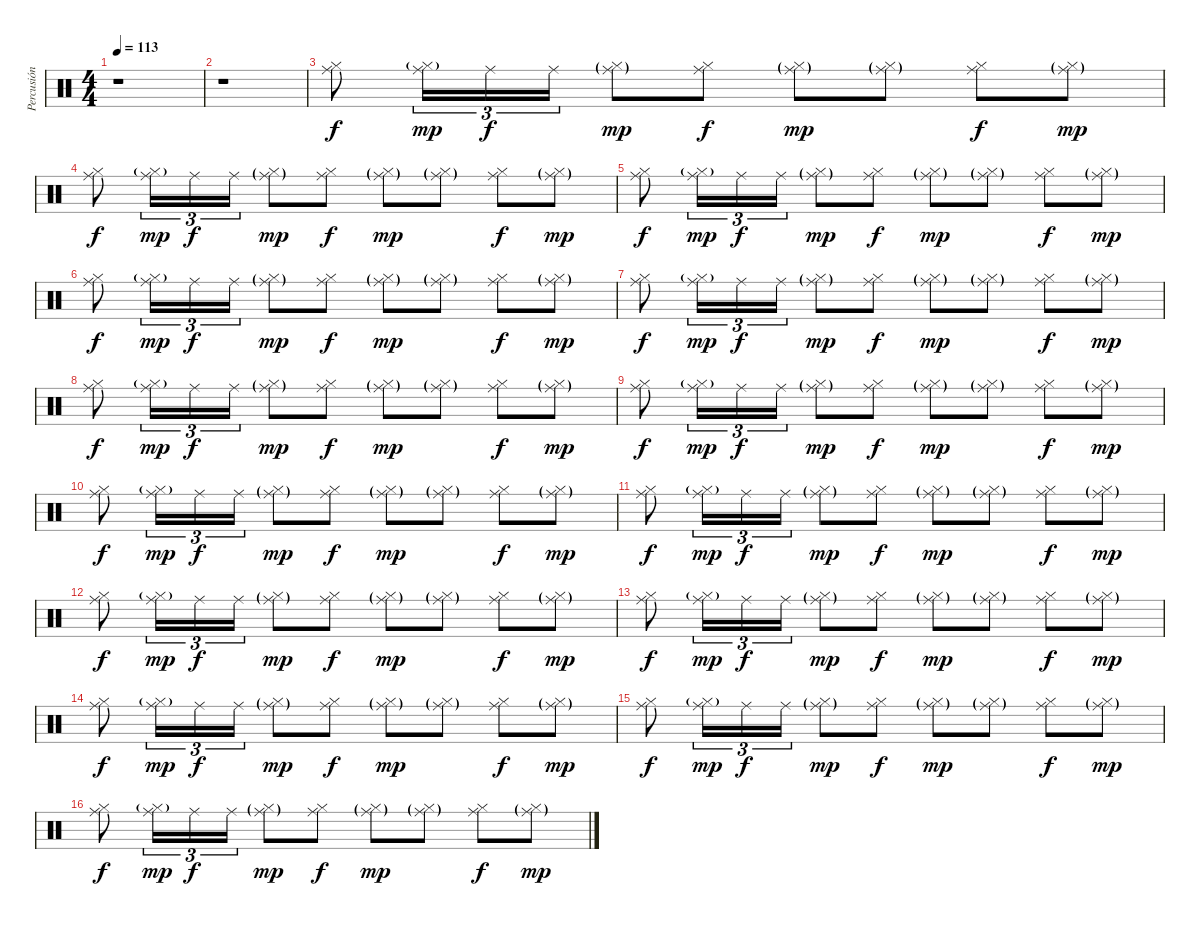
\track ("Percusión" "Percusión") {instrument percussion}
\staff {score}
\articulation defaults
\ts (4 4)
\tempo 113
\clef neutral
\ks c
r.1{dy f} |
r.1 |
("Hi-Hat (closed)" "Ride (middle)").8 ("Hi-Hat (closed)"{g} "Ride (middle)").16{tu (3 2) dy mp} "Ride (middle)".16{tu (3 2) dy f} "Ride (middle)".16{tu (3 2)} ("Hi-Hat (closed)"{g} "Ride (middle)"{g}).8{dy mp} ("Hi-Hat (closed)" "Ride (middle)").8{dy f} ("Hi-Hat (closed)"{g} "Ride (middle)"{g}).8{dy mp} ("Hi-Hat (closed)"{g} "Ride (middle)"{g}).8 ("Hi-Hat (closed)" "Ride (middle)").8{dy f} ("Hi-Hat (closed)"{g} "Ride (middle)"{g}).8{dy mp} |
("Hi-Hat (closed)" "Ride (middle)").8{dy f} ("Hi-Hat (closed)"{g} "Ride (middle)").16{tu (3 2) dy mp} "Ride (middle)".16{tu (3 2) dy f} "Ride (middle)".16{tu (3 2)} ("Hi-Hat (closed)"{g} "Ride (middle)"{g}).8{dy mp} ("Hi-Hat (closed)" "Ride (middle)").8{dy f} ("Hi-Hat (closed)"{g} "Ride (middle)"{g}).8{dy mp} ("Hi-Hat (closed)"{g} "Ride (middle)"{g}).8 ("Hi-Hat (closed)" "Ride (middle)").8{dy f} ("Hi-Hat (closed)"{g} "Ride (middle)"{g}).8{dy mp} |
("Hi-Hat (closed)" "Ride (middle)").8{dy f} ("Hi-Hat (closed)"{g} "Ride (middle)").16{tu (3 2) dy mp} "Ride (middle)".16{tu (3 2) dy f} "Ride (middle)".16{tu (3 2)} ("Hi-Hat (closed)"{g} "Ride (middle)"{g}).8{dy mp} ("Hi-Hat (closed)" "Ride (middle)").8{dy f} ("Hi-Hat (closed)"{g} "Ride (middle)"{g}).8{dy mp} ("Hi-Hat (closed)"{g} "Ride (middle)"{g}).8 ("Hi-Hat (closed)" "Ride (middle)").8{dy f} ("Hi-Hat (closed)"{g} "Ride (middle)"{g}).8{dy mp} |
("Hi-Hat (closed)" "Ride (middle)").8{dy f} ("Hi-Hat (closed)"{g} "Ride (middle)").16{tu (3 2) dy mp} "Ride (middle)".16{tu (3 2) dy f} "Ride (middle)".16{tu (3 2)} ("Hi-Hat (closed)"{g} "Ride (middle)"{g}).8{dy mp} ("Hi-Hat (closed)" "Ride (middle)").8{dy f} ("Hi-Hat (closed)"{g} "Ride (middle)"{g}).8{dy mp} ("Hi-Hat (closed)"{g} "Ride (middle)"{g}).8 ("Hi-Hat (closed)" "Ride (middle)").8{dy f} ("Hi-Hat (closed)"{g} "Ride (middle)"{g}).8{dy mp} |
("Hi-Hat (closed)" "Ride (middle)").8{dy f} ("Hi-Hat (closed)"{g} "Ride (middle)").16{tu (3 2) dy mp} "Ride (middle)".16{tu (3 2) dy f} "Ride (middle)".16{tu (3 2)} ("Hi-Hat (closed)"{g} "Ride (middle)"{g}).8{dy mp} ("Hi-Hat (closed)" "Ride (middle)").8{dy f} ("Hi-Hat (closed)"{g} "Ride (middle)"{g}).8{dy mp} ("Hi-Hat (closed)"{g} "Ride (middle)"{g}).8 ("Hi-Hat (closed)" "Ride (middle)").8{dy f} ("Hi-Hat (closed)"{g} "Ride (middle)"{g}).8{dy mp} |
("Hi-Hat (closed)" "Ride (middle)").8{dy f} ("Hi-Hat (closed)"{g} "Ride (middle)").16{tu (3 2) dy mp} "Ride (middle)".16{tu (3 2) dy f} "Ride (middle)".16{tu (3 2)} ("Hi-Hat (closed)"{g} "Ride (middle)"{g}).8{dy mp} ("Hi-Hat (closed)" "Ride (middle)").8{dy f} ("Hi-Hat (closed)"{g} "Ride (middle)"{g}).8{dy mp} ("Hi-Hat (closed)"{g} "Ride (middle)"{g}).8 ("Hi-Hat (closed)" "Ride (middle)").8{dy f} ("Hi-Hat (closed)"{g} "Ride (middle)"{g}).8{dy mp} |
("Hi-Hat (closed)" "Ride (middle)").8{dy f} ("Hi-Hat (closed)"{g} "Ride (middle)").16{tu (3 2) dy mp} "Ride (middle)".16{tu (3 2) dy f} "Ride (middle)".16{tu (3 2)} ("Hi-Hat (closed)"{g} "Ride (middle)"{g}).8{dy mp} ("Hi-Hat (closed)" "Ride (middle)").8{dy f} ("Hi-Hat (closed)"{g} "Ride (middle)"{g}).8{dy mp} ("Hi-Hat (closed)"{g} "Ride (middle)"{g}).8 ("Hi-Hat (closed)" "Ride (middle)").8{dy f} ("Hi-Hat (closed)"{g} "Ride (middle)"{g}).8{dy mp} |
("Hi-Hat (closed)" "Ride (middle)").8{dy f} ("Hi-Hat (closed)"{g} "Ride (middle)").16{tu (3 2) dy mp} "Ride (middle)".16{tu (3 2) dy f} "Ride (middle)".16{tu (3 2)} ("Hi-Hat (closed)"{g} "Ride (middle)"{g}).8{dy mp} ("Hi-Hat (closed)" "Ride (middle)").8{dy f} ("Hi-Hat (closed)"{g} "Ride (middle)"{g}).8{dy mp} ("Hi-Hat (closed)"{g} "Ride (middle)"{g}).8 ("Hi-Hat (closed)" "Ride (middle)").8{dy f} ("Hi-Hat (closed)"{g} "Ride (middle)"{g}).8{dy mp} |
("Hi-Hat (closed)" "Ride (middle)").8{dy f} ("Hi-Hat (closed)"{g} "Ride (middle)").16{tu (3 2) dy mp} "Ride (middle)".16{tu (3 2) dy f} "Ride (middle)".16{tu (3 2)} ("Hi-Hat (closed)"{g} "Ride (middle)"{g}).8{dy mp} ("Hi-Hat (closed)" "Ride (middle)").8{dy f} ("Hi-Hat (closed)"{g} "Ride (middle)"{g}).8{dy mp} ("Hi-Hat (closed)"{g} "Ride (middle)"{g}).8 ("Hi-Hat (closed)" "Ride (middle)").8{dy f} ("Hi-Hat (closed)"{g} "Ride (middle)"{g}).8{dy mp} |
("Hi-Hat (closed)" "Ride (middle)").8{dy f} ("Hi-Hat (closed)"{g} "Ride (middle)").16{tu (3 2) dy mp} "Ride (middle)".16{tu (3 2) dy f} "Ride (middle)".16{tu (3 2)} ("Hi-Hat (closed)"{g} "Ride (middle)"{g}).8{dy mp} ("Hi-Hat (closed)" "Ride (middle)").8{dy f} ("Hi-Hat (closed)"{g} "Ride (middle)"{g}).8{dy mp} ("Hi-Hat (closed)"{g} "Ride (middle)"{g}).8 ("Hi-Hat (closed)" "Ride (middle)").8{dy f} ("Hi-Hat (closed)"{g} "Ride (middle)"{g}).8{dy mp} |
("Hi-Hat (closed)" "Ride (middle)").8{dy f} ("Hi-Hat (closed)"{g} "Ride (middle)").16{tu (3 2) dy mp} "Ride (middle)".16{tu (3 2) dy f} "Ride (middle)".16{tu (3 2)} ("Hi-Hat (closed)"{g} "Ride (middle)"{g}).8{dy mp} ("Hi-Hat (closed)" "Ride (middle)").8{dy f} ("Hi-Hat (closed)"{g} "Ride (middle)"{g}).8{dy mp} ("Hi-Hat (closed)"{g} "Ride (middle)"{g}).8 ("Hi-Hat (closed)" "Ride (middle)").8{dy f} ("Hi-Hat (closed)"{g} "Ride (middle)"{g}).8{dy mp} |
("Hi-Hat (closed)" "Ride (middle)").8{dy f} ("Hi-Hat (closed)"{g} "Ride (middle)").16{tu (3 2) dy mp} "Ride (middle)".16{tu (3 2) dy f} "Ride (middle)".16{tu (3 2)} ("Hi-Hat (closed)"{g} "Ride (middle)"{g}).8{dy mp} ("Hi-Hat (closed)" "Ride (middle)").8{dy f} ("Hi-Hat (closed)"{g} "Ride (middle)"{g}).8{dy mp} ("Hi-Hat (closed)"{g} "Ride (middle)"{g}).8 ("Hi-Hat (closed)" "Ride (middle)").8{dy f} ("Hi-Hat (closed)"{g} "Ride (middle)"{g}).8{dy mp} |
("Hi-Hat (closed)" "Ride (middle)").8{dy f} ("Hi-Hat (closed)"{g} "Ride (middle)").16{tu (3 2) dy mp} "Ride (middle)".16{tu (3 2) dy f} "Ride (middle)".16{tu (3 2)} ("Hi-Hat (closed)"{g} "Ride (middle)"{g}).8{dy mp} ("Hi-Hat (closed)" "Ride (middle)").8{dy f} ("Hi-Hat (closed)"{g} "Ride (middle)"{g}).8{dy mp} ("Hi-Hat (closed)"{g} "Ride (middle)"{g}).8 ("Hi-Hat (closed)" "Ride (middle)").8{dy f} ("Hi-Hat (closed)"{g} "Ride (middle)"{g}).8{dy mp} |
("Hi-Hat (closed)" "Ride (middle)").8{dy f} ("Hi-Hat (closed)"{g} "Ride (middle)").16{tu (3 2) dy mp} "Ride (middle)".16{tu (3 2) dy f} "Ride (middle)".16{tu (3 2)} ("Hi-Hat (closed)"{g} "Ride (middle)"{g}).8{dy mp} ("Hi-Hat (closed)" "Ride (middle)").8{dy f} ("Hi-Hat (closed)"{g} "Ride (middle)"{g}).8{dy mp} ("Hi-Hat (closed)"{g} "Ride (middle)"{g}).8 ("Hi-Hat (closed)" "Ride (middle)").8{dy f} ("Hi-Hat (closed)"{g} "Ride (middle)"{g}).8{dy mp}
